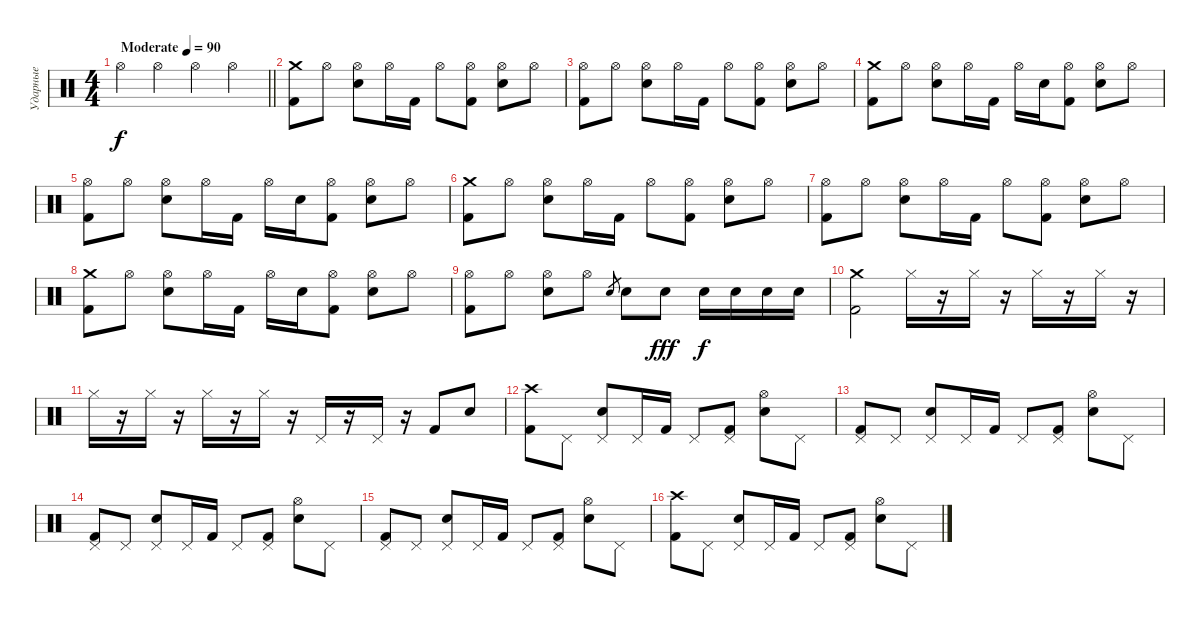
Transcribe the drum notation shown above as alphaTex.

\track ("Ударные" "Ударные") {instrument percussion}
\staff {score}
\articulation defaults
\ts (4 4)
\tempo (90 "Moderate")
\clef neutral
\barLineRight lightlight
\ks c "Hi-Hat (open)".4{dy f} "Hi-Hat (open)".4 "Hi-Hat (open)".4 "Hi-Hat (open)".4
|
("Crash medium (hit)" "Kick (hit) 2").8 "Hi-Hat (open)".8 ("Hi-Hat (open)" "Snare (hit) 2").8 "Hi-Hat (open)".16 "Kick (hit) 2".16 "Hi-Hat (open)".8 ("Hi-Hat (open)" "Kick (hit) 2").8 ("Hi-Hat (open)" "Snare (hit) 2").8 "Hi-Hat (open)".8 |
("Hi-Hat (open)" "Kick (hit) 2").8 "Hi-Hat (open)".8 ("Hi-Hat (open)" "Snare (hit) 2").8 "Hi-Hat (open)".16 "Kick (hit) 2".16 "Hi-Hat (open)".8 ("Hi-Hat (open)" "Kick (hit) 2").8 ("Hi-Hat (open)" "Snare (hit) 2").8 "Hi-Hat (open)".8 |
("Crash medium (hit)" "Kick (hit) 2").8 "Hi-Hat (open)".8 ("Hi-Hat (open)" "Snare (hit) 2").8 "Hi-Hat (open)".16 "Kick (hit) 2".16 "Hi-Hat (open)".16 "Snare (hit) 2".16 ("Hi-Hat (open)" "Kick (hit) 2").8 ("Hi-Hat (open)" "Snare (hit) 2").8 "Hi-Hat (open)".8 |
("Hi-Hat (open)" "Kick (hit) 2").8 "Hi-Hat (open)".8 ("Hi-Hat (open)" "Snare (hit) 2").8 "Hi-Hat (open)".16 "Kick (hit) 2".16 "Hi-Hat (open)".16 "Snare (hit) 2".16 ("Hi-Hat (open)" "Kick (hit) 2").8 ("Hi-Hat (open)" "Snare (hit) 2").8 "Hi-Hat (open)".8 |
("Crash medium (hit)" "Kick (hit) 2").8 "Hi-Hat (open)".8 ("Hi-Hat (open)" "Snare (hit) 2").8 "Hi-Hat (open)".16 "Kick (hit) 2".16 "Hi-Hat (open)".8 ("Hi-Hat (open)" "Kick (hit) 2").8 ("Hi-Hat (open)" "Snare (hit) 2").8 "Hi-Hat (open)".8 |
("Hi-Hat (open)" "Kick (hit) 2").8 "Hi-Hat (open)".8 ("Hi-Hat (open)" "Snare (hit) 2").8 "Hi-Hat (open)".16 "Kick (hit) 2".16 "Hi-Hat (open)".8 ("Hi-Hat (open)" "Kick (hit) 2").8 ("Hi-Hat (open)" "Snare (hit) 2").8 "Hi-Hat (open)".8 |
("Crash medium (hit)" "Kick (hit) 2").8 "Hi-Hat (open)".8 ("Hi-Hat (open)" "Snare (hit) 2").8 "Hi-Hat (open)".16 "Kick (hit) 2".16 "Hi-Hat (open)".16 "Snare (hit) 2".16 ("Hi-Hat (open)" "Kick (hit) 2").8 ("Hi-Hat (open)" "Snare (hit) 2").8 "Hi-Hat (open)".8 |
("Hi-Hat (open)" "Kick (hit) 2").8 "Hi-Hat (open)".8 ("Hi-Hat (open)" "Snare (hit) 2").8 "Hi-Hat (open)".8 "Snare (hit) 2".8{gr} "Snare (hit) 2".8 "Snare (hit) 2".8{dy fff} "Snare (hit) 2".16{dy f} "Snare (hit) 2".16 "Snare (hit) 2".16 "Snare (hit) 2".16 |
("Crash medium (hit)" "Kick (hit) 2").2 "Hi-Hat (closed)".16 r.16 "Hi-Hat (closed)".16 r.16 "Hi-Hat (closed)".16 r.16 "Hi-Hat (closed)".16 r.16 |
"Hi-Hat (closed)".16 r.16 "Hi-Hat (closed)".16 r.16 "Hi-Hat (closed)".16 r.16 "Hi-Hat (closed)".16 r.16 "Pedal Hi-Hat (hit)".16 r.16 "Pedal Hi-Hat (hit)".16 r.16 "Kick (hit) 2".8 "Snare (hit) 2".8 |
("Crash high (hit)" "Kick (hit) 2").8 "Pedal Hi-Hat (hit)".8 ("Pedal Hi-Hat (hit)" "Snare (hit) 2").8 "Pedal Hi-Hat (hit)".16 "Kick (hit) 2".16 "Pedal Hi-Hat (hit)".8 ("Pedal Hi-Hat (hit)" "Kick (hit) 2").8 ("Hi-Hat (open)" "Snare (hit) 2").8 "Pedal Hi-Hat (hit)".8 |
("Pedal Hi-Hat (hit)" "Kick (hit) 2").8 "Pedal Hi-Hat (hit)".8 ("Pedal Hi-Hat (hit)" "Snare (hit) 2").8 "Pedal Hi-Hat (hit)".16 "Kick (hit) 2".16 "Pedal Hi-Hat (hit)".8 ("Pedal Hi-Hat (hit)" "Kick (hit) 2").8 ("Hi-Hat (open)" "Snare (hit) 2").8 "Pedal Hi-Hat (hit)".8 |
("Pedal Hi-Hat (hit)" "Kick (hit) 2").8 "Pedal Hi-Hat (hit)".8 ("Pedal Hi-Hat (hit)" "Snare (hit) 2").8 "Pedal Hi-Hat (hit)".16 "Kick (hit) 2".16 "Pedal Hi-Hat (hit)".8 ("Pedal Hi-Hat (hit)" "Kick (hit) 2").8 ("Hi-Hat (open)" "Snare (hit) 2").8 "Pedal Hi-Hat (hit)".8 |
("Pedal Hi-Hat (hit)" "Kick (hit) 2").8 "Pedal Hi-Hat (hit)".8 ("Pedal Hi-Hat (hit)" "Snare (hit) 2").8 "Pedal Hi-Hat (hit)".16 "Kick (hit) 2".16 "Pedal Hi-Hat (hit)".8 ("Pedal Hi-Hat (hit)" "Kick (hit) 2").8 ("Hi-Hat (open)" "Snare (hit) 2").8 "Pedal Hi-Hat (hit)".8 |
("Crash high (hit)" "Kick (hit) 2").8 "Pedal Hi-Hat (hit)".8 ("Pedal Hi-Hat (hit)" "Snare (hit) 2").8 "Pedal Hi-Hat (hit)".16 "Kick (hit) 2".16 "Pedal Hi-Hat (hit)".8 ("Pedal Hi-Hat (hit)" "Kick (hit) 2").8 ("Hi-Hat (open)" "Snare (hit) 2").8 "Pedal Hi-Hat (hit)".8
